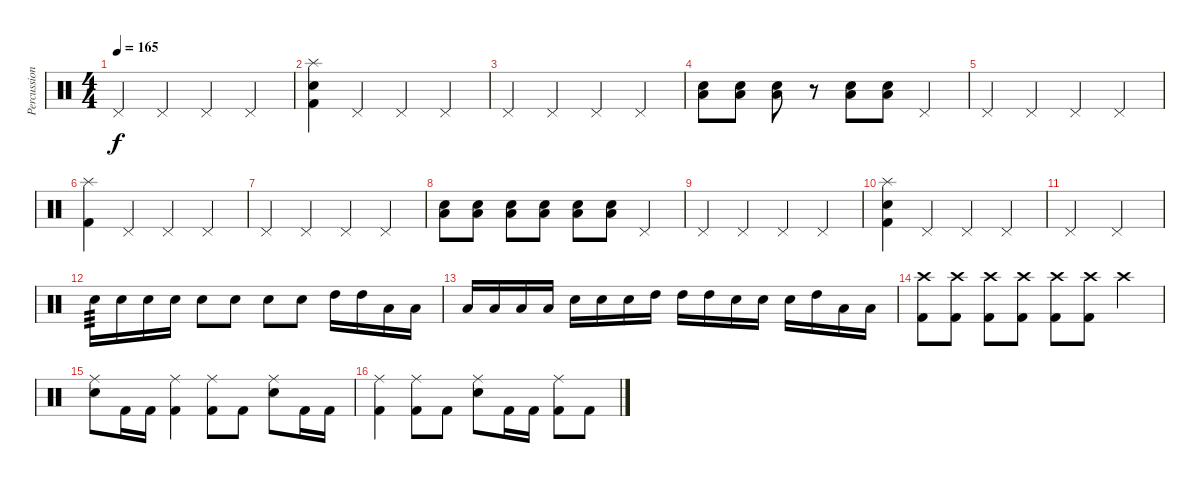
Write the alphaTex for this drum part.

\track ("Percussion" "Percussion") {instrument percussion}
\staff {score}
\articulation defaults
\ts (4 4)
\tempo 165
\clef neutral
\ks c "Pedal Hi-Hat (hit)".4{dy f} "Pedal Hi-Hat (hit)".4 "Pedal Hi-Hat (hit)".4 "Pedal Hi-Hat (hit)".4
|
("Splash (hit)" "Electric Snare (hit)" "Kick (hit) 2").4 "Pedal Hi-Hat (hit)".4 "Pedal Hi-Hat (hit)".4 "Pedal Hi-Hat (hit)".4 |
"Pedal Hi-Hat (hit)".4 "Pedal Hi-Hat (hit)".4 "Pedal Hi-Hat (hit)".4 "Pedal Hi-Hat (hit)".4 |
("Electric Snare (hit)" "Low Floor Tom (hit)").8 ("Electric Snare (hit)" "Low Floor Tom (hit)").8 ("Electric Snare (hit)" "Low Floor Tom (hit)").8 r.8 ("Electric Snare (hit)" "Low Floor Tom (hit)").8 ("Electric Snare (hit)" "Low Floor Tom (hit)").8 "Pedal Hi-Hat (hit)".4 |
"Pedal Hi-Hat (hit)".4 "Pedal Hi-Hat (hit)".4 "Pedal Hi-Hat (hit)".4 "Pedal Hi-Hat (hit)".4 |
("Splash (hit)" "Kick (hit) 2").4 "Pedal Hi-Hat (hit)".4 "Pedal Hi-Hat (hit)".4 "Pedal Hi-Hat (hit)".4 |
"Pedal Hi-Hat (hit)".4 "Pedal Hi-Hat (hit)".4 "Pedal Hi-Hat (hit)".4 "Pedal Hi-Hat (hit)".4 |
("Electric Snare (hit)" "Low Floor Tom (hit)").8 ("Electric Snare (hit)" "Low Floor Tom (hit)").8 ("Electric Snare (hit)" "Low Floor Tom (hit)").8 ("Electric Snare (hit)" "Low Floor Tom (hit)").8 ("Electric Snare (hit)" "Low Floor Tom (hit)").8 ("Electric Snare (hit)" "Low Floor Tom (hit)").8 "Pedal Hi-Hat (hit)".4 |
"Pedal Hi-Hat (hit)".4 "Pedal Hi-Hat (hit)".4 "Pedal Hi-Hat (hit)".4 "Pedal Hi-Hat (hit)".4 |
("Splash (hit)" "Electric Snare (hit)" "Kick (hit) 2").4 "Pedal Hi-Hat (hit)".4 "Pedal Hi-Hat (hit)".4 "Pedal Hi-Hat (hit)".4 |
"Pedal Hi-Hat (hit)".2 "Pedal Hi-Hat (hit)".2 |
"Electric Snare (hit)".16{tp 3} "Electric Snare (hit)".16 "Electric Snare (hit)".16 "Electric Snare (hit)".16 "Electric Snare (hit)".8 "Electric Snare (hit)".8 "Electric Snare (hit)".8 "Electric Snare (hit)".8 "High Tom (hit)".16 "High Tom (hit)".16 "Low Tom (hit)".16 "Low Tom (hit)".16 |
"Low Floor Tom (hit)".16 "Low Floor Tom (hit)".16 "Low Floor Tom (hit)".16 "Low Floor Tom (hit)".16 "Electric Snare (hit)".16 "Electric Snare (hit)".16 "Electric Snare (hit)".16 "High Tom (hit)".16 "High Tom (hit)".16 "High Tom (hit)".16 "Electric Snare (hit)".16 "Electric Snare (hit)".16 "Electric Snare (hit)".16 "High Tom (hit)".16 "Low Tom (hit)".16 "Low Floor Tom (hit)".16 |
("Crash high (hit)" "Kick (hit) 2").8 ("Crash high (hit)" "Kick (hit) 2").8 ("Crash high (hit)" "Kick (hit) 2").8 ("Crash high (hit)" "Kick (hit) 2").8 ("Crash high (hit)" "Kick (hit) 2").8 ("Crash high (hit)" "Kick (hit) 2").8 "Crash high (hit)".4 |
("Ride (middle)" "Electric Snare (hit)").8 "Kick (hit) 2".16 "Kick (hit) 2".16 ("Ride (middle)" "Kick (hit) 2").4 ("Ride (middle)" "Kick (hit) 2").8 "Kick (hit) 2".8 ("Ride (middle)" "Electric Snare (hit)").8 "Kick (hit) 2".16 "Kick (hit) 2".16 |
("Ride (middle)" "Kick (hit) 2").4 ("Ride (middle)" "Kick (hit) 2").8 "Kick (hit) 2".8 ("Ride (middle)" "Electric Snare (hit)").8 "Kick (hit) 2".16 "Kick (hit) 2".16 ("Ride (middle)" "Kick (hit) 2").8 "Kick (hit) 2".8
